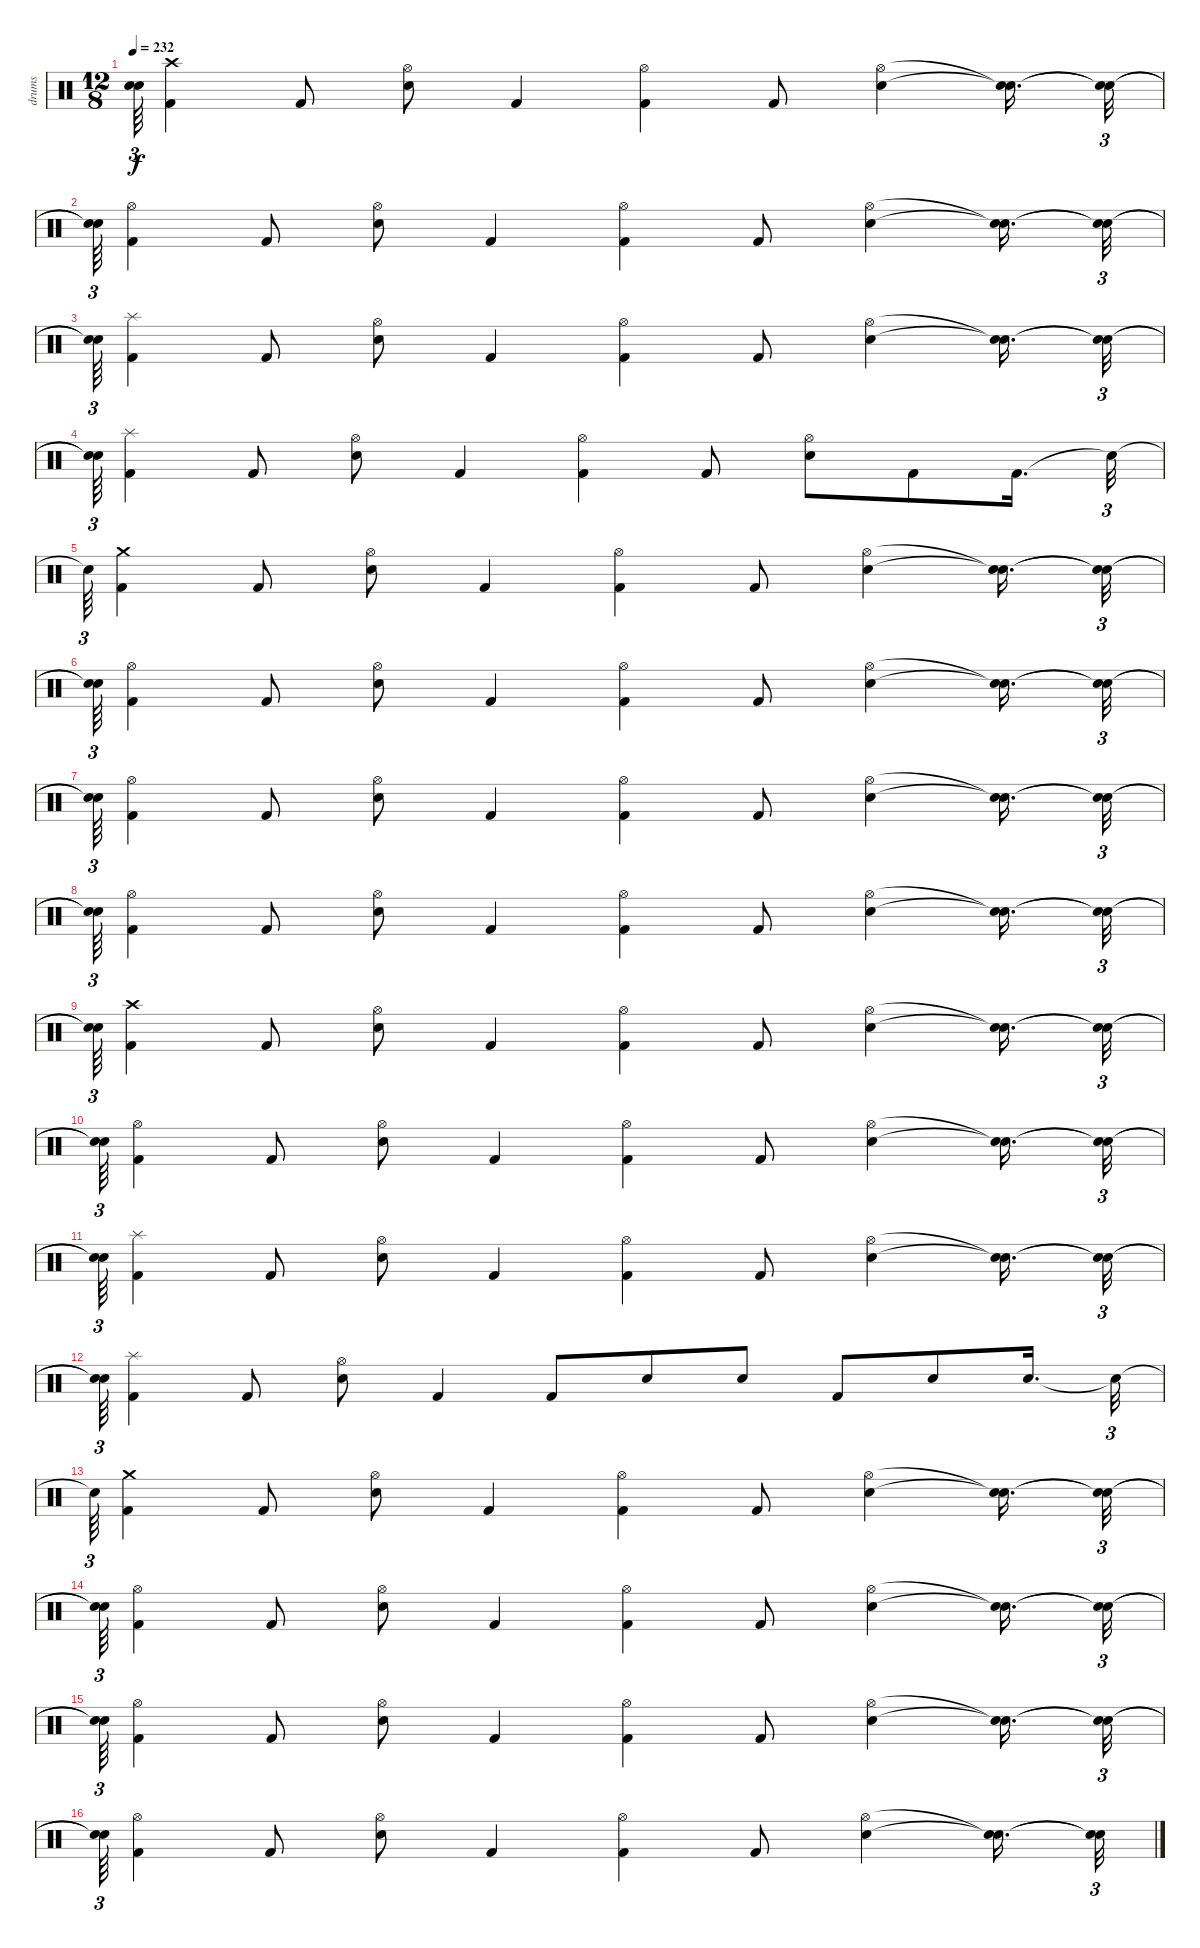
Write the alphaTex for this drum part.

\track ("drums" "drums") {instrument percussion}
\staff {score}
\articulation defaults
\ts (12 8)
\tempo 232
\clef neutral
\ks c
("Snare (hit)"{t} "Snare (hit)"{t}).64{tu (3 2) dy f} ("Kick (hit) 2" "Crash high (hit)").4 "Kick (hit) 2".8 ("Electric Snare (hit)" "Hi-Hat (open)").8 "Kick (hit) 2".4 ("Kick (hit) 2" "Hi-Hat (open)").4 "Kick (hit) 2".8 ("Electric Snare (hit)" "Hi-Hat (open)").4 ("Snare (hit)"{t} "Snare (hit)"{t}).16{d} ("Snare (hit)"{t} "Snare (hit)"{t}).32{tu (3 2)} |
("Snare (hit)"{t} "Snare (hit)"{t}).64{tu (3 2)} ("Hi-Hat (open)" "Kick (hit) 2").4 "Kick (hit) 2".8 ("Hi-Hat (open)" "Electric Snare (hit)").8 "Kick (hit) 2".4 ("Hi-Hat (open)" "Kick (hit) 2").4 "Kick (hit) 2".8 ("Hi-Hat (open)" "Electric Snare (hit)").4 ("Snare (hit)"{t} "Snare (hit)"{t}).16{d} ("Snare (hit)"{t} "Snare (hit)"{t}).32{tu (3 2)} |
("Snare (hit)"{t} "Snare (hit)"{t}).64{tu (3 2)} ("Splash (hit)" "Kick (hit) 2").4 "Kick (hit) 2".8 ("Hi-Hat (open)" "Electric Snare (hit)").8 "Kick (hit) 2".4 ("Hi-Hat (open)" "Kick (hit) 2").4 "Kick (hit) 2".8 ("Hi-Hat (open)" "Electric Snare (hit)").4 ("Snare (hit)"{t} "Snare (hit)"{t}).16{d} ("Snare (hit)"{t} "Snare (hit)"{t}).32{tu (3 2)} |
("Snare (hit)"{t} "Snare (hit)"{t}).64{tu (3 2)} ("Splash (hit)" "Kick (hit) 2").4 "Kick (hit) 2".8 ("Hi-Hat (open)" "Electric Snare (hit)").8 "Kick (hit) 2".4 ("Hi-Hat (open)" "Kick (hit) 2").4 "Kick (hit) 2".8 ("Electric Snare (hit)" "Hi-Hat (open)").8 "Kick (hit) 2".8 "Kick (hit) 2".16{d} "Snare (hit)"{t}.32{tu (3 2)} |
"Snare (hit)"{t}.64{tu (3 2)} ("Kick (hit) 2" "Crash medium (hit)").4 "Kick (hit) 2".8 ("Electric Snare (hit)" "Hi-Hat (open)").8 "Kick (hit) 2".4 ("Kick (hit) 2" "Hi-Hat (open)").4 "Kick (hit) 2".8 ("Electric Snare (hit)" "Hi-Hat (open)").4 ("Snare (hit)"{t} "Snare (hit)"{t}).16{d} ("Snare (hit)"{t} "Snare (hit)"{t}).32{tu (3 2)} |
("Snare (hit)"{t} "Snare (hit)"{t}).64{tu (3 2)} ("Hi-Hat (open)" "Kick (hit) 2").4 "Kick (hit) 2".8 ("Hi-Hat (open)" "Electric Snare (hit)").8 "Kick (hit) 2".4 ("Hi-Hat (open)" "Kick (hit) 2").4 "Kick (hit) 2".8 ("Hi-Hat (open)" "Electric Snare (hit)").4 ("Snare (hit)"{t} "Snare (hit)"{t}).16{d} ("Snare (hit)"{t} "Snare (hit)"{t}).32{tu (3 2)} |
("Snare (hit)"{t} "Snare (hit)"{t}).64{tu (3 2)} ("Hi-Hat (open)" "Kick (hit) 2").4 "Kick (hit) 2".8 ("Hi-Hat (open)" "Electric Snare (hit)").8 "Kick (hit) 2".4 ("Hi-Hat (open)" "Kick (hit) 2").4 "Kick (hit) 2".8 ("Hi-Hat (open)" "Electric Snare (hit)").4 ("Snare (hit)"{t} "Snare (hit)"{t}).16{d} ("Snare (hit)"{t} "Snare (hit)"{t}).32{tu (3 2)} |
("Snare (hit)"{t} "Snare (hit)"{t}).64{tu (3 2)} ("Hi-Hat (open)" "Kick (hit) 2").4 "Kick (hit) 2".8 ("Hi-Hat (open)" "Electric Snare (hit)").8 "Kick (hit) 2".4 ("Hi-Hat (open)" "Kick (hit) 2").4 "Kick (hit) 2".8 ("Hi-Hat (open)" "Electric Snare (hit)").4 ("Snare (hit)"{t} "Snare (hit)"{t}).16{d} ("Snare (hit)"{t} "Snare (hit)"{t}).32{tu (3 2)} |
("Snare (hit)"{t} "Snare (hit)"{t}).64{tu (3 2)} ("Kick (hit) 2" "Crash high (hit)").4 "Kick (hit) 2".8 ("Electric Snare (hit)" "Hi-Hat (open)").8 "Kick (hit) 2".4 ("Kick (hit) 2" "Hi-Hat (open)").4 "Kick (hit) 2".8 ("Electric Snare (hit)" "Hi-Hat (open)").4 ("Snare (hit)"{t} "Snare (hit)"{t}).16{d} ("Snare (hit)"{t} "Snare (hit)"{t}).32{tu (3 2)} |
("Snare (hit)"{t} "Snare (hit)"{t}).64{tu (3 2)} ("Hi-Hat (open)" "Kick (hit) 2").4 "Kick (hit) 2".8 ("Hi-Hat (open)" "Electric Snare (hit)").8 "Kick (hit) 2".4 ("Hi-Hat (open)" "Kick (hit) 2").4 "Kick (hit) 2".8 ("Hi-Hat (open)" "Electric Snare (hit)").4 ("Snare (hit)"{t} "Snare (hit)"{t}).16{d} ("Snare (hit)"{t} "Snare (hit)"{t}).32{tu (3 2)} |
("Snare (hit)"{t} "Snare (hit)"{t}).64{tu (3 2)} ("Splash (hit)" "Kick (hit) 2").4 "Kick (hit) 2".8 ("Hi-Hat (open)" "Electric Snare (hit)").8 "Kick (hit) 2".4 ("Hi-Hat (open)" "Kick (hit) 2").4 "Kick (hit) 2".8 ("Hi-Hat (open)" "Electric Snare (hit)").4 ("Snare (hit)"{t} "Snare (hit)"{t}).16{d} ("Snare (hit)"{t} "Snare (hit)"{t}).32{tu (3 2)} |
("Snare (hit)"{t} "Snare (hit)"{t}).64{tu (3 2)} ("Splash (hit)" "Kick (hit) 2").4 "Kick (hit) 2".8 ("Hi-Hat (open)" "Electric Snare (hit)").8 "Kick (hit) 2".4 "Kick (hit) 2".8 "Electric Snare (hit)".8 "Electric Snare (hit)".8 "Kick (hit) 2".8 "Electric Snare (hit)".8 "Electric Snare (hit)".16{d} "Snare (hit)"{t}.32{tu (3 2)} |
"Snare (hit)"{t}.64{tu (3 2)} ("Kick (hit) 2" "Crash medium (hit)").4 "Kick (hit) 2".8 ("Electric Snare (hit)" "Hi-Hat (open)").8 "Kick (hit) 2".4 ("Kick (hit) 2" "Hi-Hat (open)").4 "Kick (hit) 2".8 ("Electric Snare (hit)" "Hi-Hat (open)").4 ("Snare (hit)"{t} "Snare (hit)"{t}).16{d} ("Snare (hit)"{t} "Snare (hit)"{t}).32{tu (3 2)} |
("Snare (hit)"{t} "Snare (hit)"{t}).64{tu (3 2)} ("Hi-Hat (open)" "Kick (hit) 2").4 "Kick (hit) 2".8 ("Hi-Hat (open)" "Electric Snare (hit)").8 "Kick (hit) 2".4 ("Hi-Hat (open)" "Kick (hit) 2").4 "Kick (hit) 2".8 ("Hi-Hat (open)" "Electric Snare (hit)").4 ("Snare (hit)"{t} "Snare (hit)"{t}).16{d} ("Snare (hit)"{t} "Snare (hit)"{t}).32{tu (3 2)} |
("Snare (hit)"{t} "Snare (hit)"{t}).64{tu (3 2)} ("Hi-Hat (open)" "Kick (hit) 2").4 "Kick (hit) 2".8 ("Hi-Hat (open)" "Electric Snare (hit)").8 "Kick (hit) 2".4 ("Hi-Hat (open)" "Kick (hit) 2").4 "Kick (hit) 2".8 ("Hi-Hat (open)" "Electric Snare (hit)").4 ("Snare (hit)"{t} "Snare (hit)"{t}).16{d} ("Snare (hit)"{t} "Snare (hit)"{t}).32{tu (3 2)} |
("Snare (hit)"{t} "Snare (hit)"{t}).64{tu (3 2)} ("Hi-Hat (open)" "Kick (hit) 2").4 "Kick (hit) 2".8 ("Hi-Hat (open)" "Electric Snare (hit)").8 "Kick (hit) 2".4 ("Hi-Hat (open)" "Kick (hit) 2").4 "Kick (hit) 2".8 ("Hi-Hat (open)" "Electric Snare (hit)").4 ("Snare (hit)"{t} "Snare (hit)"{t}).16{d} ("Snare (hit)"{t} "Snare (hit)"{t}).32{tu (3 2)}
